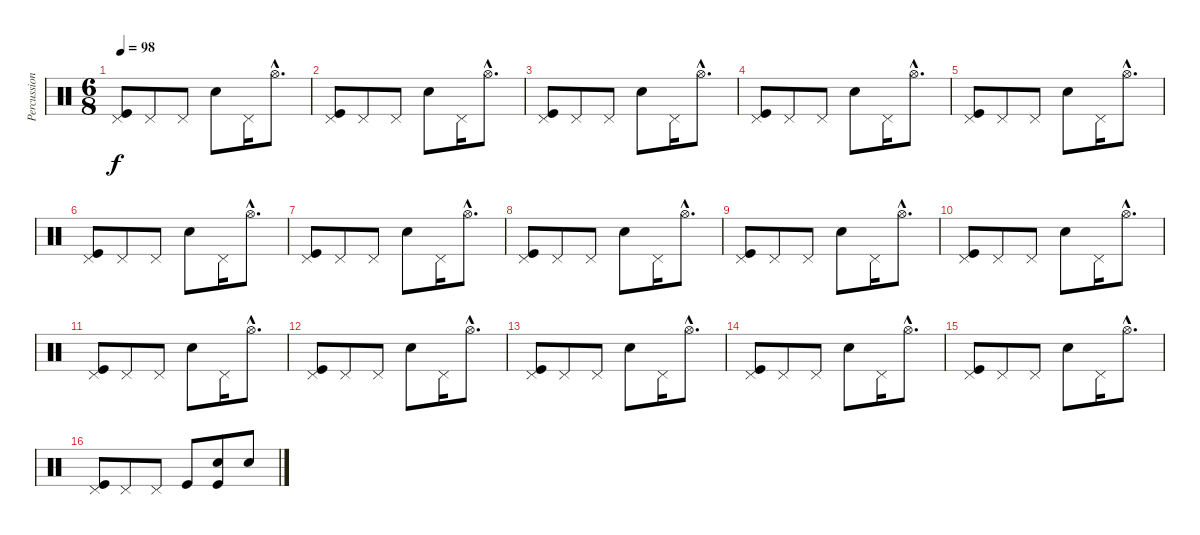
\track ("Percussion" "Percussion") {instrument percussion}
\staff {score}
\articulation defaults
\ts (6 8)
\tempo 98
\clef neutral
\ks c
("Pedal Hi-Hat (hit)" "Kick (hit)").8{dy f} "Pedal Hi-Hat (hit)".8 "Pedal Hi-Hat (hit)".8 "Snare (hit) 2".8 "Pedal Hi-Hat (hit)".16 "Hi-Hat (open)"{hac}.8{d} |
("Pedal Hi-Hat (hit)" "Kick (hit)").8 "Pedal Hi-Hat (hit)".8 "Pedal Hi-Hat (hit)".8 "Snare (hit) 2".8 "Pedal Hi-Hat (hit)".16 "Hi-Hat (open)"{hac}.8{d} |
("Pedal Hi-Hat (hit)" "Kick (hit)").8 "Pedal Hi-Hat (hit)".8 "Pedal Hi-Hat (hit)".8 "Snare (hit) 2".8 "Pedal Hi-Hat (hit)".16 "Hi-Hat (open)"{hac}.8{d} |
("Pedal Hi-Hat (hit)" "Kick (hit)").8 "Pedal Hi-Hat (hit)".8 "Pedal Hi-Hat (hit)".8 "Snare (hit) 2".8 "Pedal Hi-Hat (hit)".16 "Hi-Hat (open)"{hac}.8{d} |
("Pedal Hi-Hat (hit)" "Kick (hit)").8 "Pedal Hi-Hat (hit)".8 "Pedal Hi-Hat (hit)".8 "Snare (hit) 2".8 "Pedal Hi-Hat (hit)".16 "Hi-Hat (open)"{hac}.8{d} |
("Pedal Hi-Hat (hit)" "Kick (hit)").8 "Pedal Hi-Hat (hit)".8 "Pedal Hi-Hat (hit)".8 "Snare (hit) 2".8 "Pedal Hi-Hat (hit)".16 "Hi-Hat (open)"{hac}.8{d} |
("Pedal Hi-Hat (hit)" "Kick (hit)").8 "Pedal Hi-Hat (hit)".8 "Pedal Hi-Hat (hit)".8 "Snare (hit) 2".8 "Pedal Hi-Hat (hit)".16 "Hi-Hat (open)"{hac}.8{d} |
("Pedal Hi-Hat (hit)" "Kick (hit)").8 "Pedal Hi-Hat (hit)".8 "Pedal Hi-Hat (hit)".8 "Snare (hit) 2".8 "Pedal Hi-Hat (hit)".16 "Hi-Hat (open)"{hac}.8{d} |
("Pedal Hi-Hat (hit)" "Kick (hit)").8 "Pedal Hi-Hat (hit)".8 "Pedal Hi-Hat (hit)".8 "Snare (hit) 2".8 "Pedal Hi-Hat (hit)".16 "Hi-Hat (open)"{hac}.8{d} |
("Pedal Hi-Hat (hit)" "Kick (hit)").8 "Pedal Hi-Hat (hit)".8 "Pedal Hi-Hat (hit)".8 "Snare (hit) 2".8 "Pedal Hi-Hat (hit)".16 "Hi-Hat (open)"{hac}.8{d} |
("Pedal Hi-Hat (hit)" "Kick (hit)").8 "Pedal Hi-Hat (hit)".8 "Pedal Hi-Hat (hit)".8 "Snare (hit) 2".8 "Pedal Hi-Hat (hit)".16 "Hi-Hat (open)"{hac}.8{d} |
("Pedal Hi-Hat (hit)" "Kick (hit)").8 "Pedal Hi-Hat (hit)".8 "Pedal Hi-Hat (hit)".8 "Snare (hit) 2".8 "Pedal Hi-Hat (hit)".16 "Hi-Hat (open)"{hac}.8{d} |
("Pedal Hi-Hat (hit)" "Kick (hit)").8 "Pedal Hi-Hat (hit)".8 "Pedal Hi-Hat (hit)".8 "Snare (hit) 2".8 "Pedal Hi-Hat (hit)".16 "Hi-Hat (open)"{hac}.8{d} |
("Pedal Hi-Hat (hit)" "Kick (hit)").8 "Pedal Hi-Hat (hit)".8 "Pedal Hi-Hat (hit)".8 "Snare (hit) 2".8 "Pedal Hi-Hat (hit)".16 "Hi-Hat (open)"{hac}.8{d} |
("Pedal Hi-Hat (hit)" "Kick (hit)").8 "Pedal Hi-Hat (hit)".8 "Pedal Hi-Hat (hit)".8 "Snare (hit) 2".8 "Pedal Hi-Hat (hit)".16 "Hi-Hat (open)"{hac}.8{d} |
("Pedal Hi-Hat (hit)" "Kick (hit)").8 "Pedal Hi-Hat (hit)".8 "Pedal Hi-Hat (hit)".8 "Kick (hit)".8 ("Kick (hit)" "Snare (hit) 2").8 "Snare (hit) 2".8
